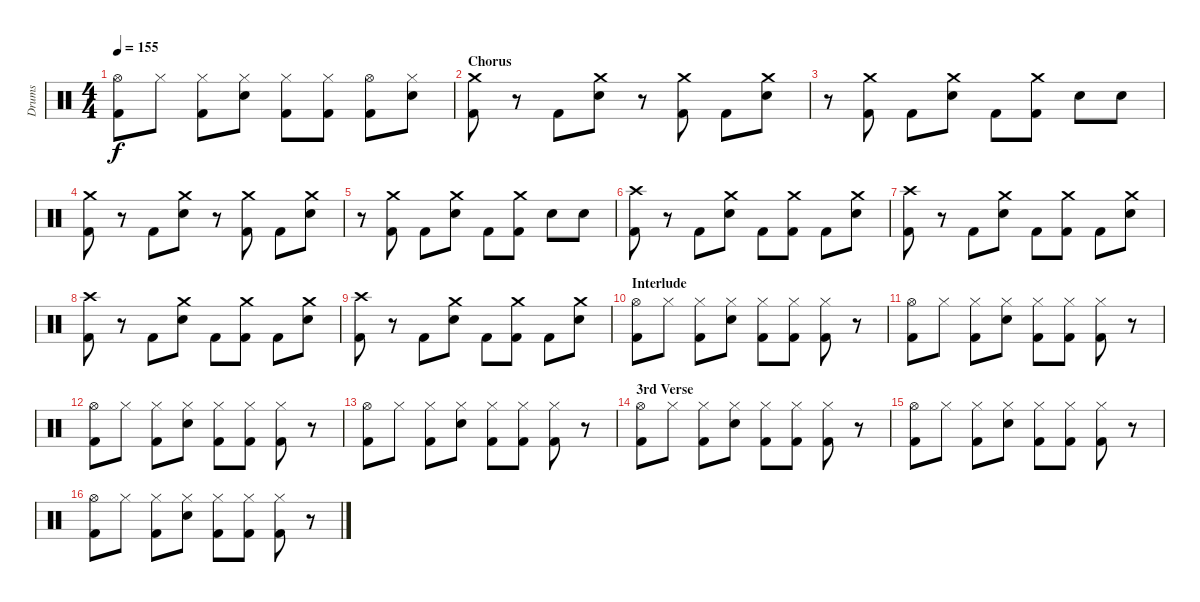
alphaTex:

\track ("Drums" "Drums") {instrument percussion}
\staff {score}
\articulation defaults
\ts (4 4)
\tempo 155
\clef neutral
\ks c
("Kick (hit) 2" "Hi-Hat (open)").8{dy f} "Hi-Hat (closed)".8 ("Kick (hit) 2" "Hi-Hat (closed)").8 ("Electric Snare (hit)" "Hi-Hat (closed)").8 ("Kick (hit) 2" "Hi-Hat (closed)").8 ("Kick (hit) 2" "Hi-Hat (closed)").8 ("Kick (hit) 2" "Hi-Hat (open)").8 ("Electric Snare (hit)" "Hi-Hat (closed)").8 |
\section ("" "Chorus")
("Kick (hit) 2" "Crash medium (hit)").8 r.8 "Kick (hit) 2".8 ("Electric Snare (hit)" "Crash medium (hit)").8 r.8 ("Kick (hit) 2" "Crash medium (hit)").8 "Kick (hit) 2".8 ("Electric Snare (hit)" "Crash medium (hit)").8 |
r.8 ("Kick (hit) 2" "Crash medium (hit)").8 "Kick (hit) 2".8 ("Electric Snare (hit)" "Crash medium (hit)").8 "Kick (hit) 2".8 ("Kick (hit) 2" "Crash medium (hit)").8 "Electric Snare (hit)".8 "Electric Snare (hit)".8 |
("Kick (hit) 2" "Crash medium (hit)").8 r.8 "Kick (hit) 2".8 ("Electric Snare (hit)" "Crash medium (hit)").8 r.8 ("Kick (hit) 2" "Crash medium (hit)").8 "Kick (hit) 2".8 ("Electric Snare (hit)" "Crash medium (hit)").8 |
r.8 ("Kick (hit) 2" "Crash medium (hit)").8 "Kick (hit) 2".8 ("Electric Snare (hit)" "Crash medium (hit)").8 "Kick (hit) 2".8 ("Kick (hit) 2" "Crash medium (hit)").8 "Electric Snare (hit)".8 "Electric Snare (hit)".8 |
("Kick (hit) 2" "Crash high (hit)").8 r.8 "Kick (hit) 2".8 ("Electric Snare (hit)" "Crash medium (hit)").8 "Kick (hit) 2".8 ("Kick (hit) 2" "Crash medium (hit)").8 "Kick (hit) 2".8 ("Electric Snare (hit)" "Crash medium (hit)").8 |
("Kick (hit) 2" "Crash high (hit)").8 r.8 "Kick (hit) 2".8 ("Electric Snare (hit)" "Crash medium (hit)").8 "Kick (hit) 2".8 ("Kick (hit) 2" "Crash medium (hit)").8 "Kick (hit) 2".8 ("Electric Snare (hit)" "Crash medium (hit)").8 |
("Kick (hit) 2" "Crash high (hit)").8 r.8 "Kick (hit) 2".8 ("Electric Snare (hit)" "Crash medium (hit)").8 "Kick (hit) 2".8 ("Kick (hit) 2" "Crash medium (hit)").8 "Kick (hit) 2".8 ("Electric Snare (hit)" "Crash medium (hit)").8 |
("Kick (hit) 2" "Crash high (hit)").8 r.8 "Kick (hit) 2".8 ("Electric Snare (hit)" "Crash medium (hit)").8 "Kick (hit) 2".8 ("Kick (hit) 2" "Crash medium (hit)").8 "Kick (hit) 2".8 ("Electric Snare (hit)" "Crash medium (hit)").8 |
\section ("" "Interlude")
("Kick (hit) 2" "Hi-Hat (open)").8 "Hi-Hat (closed)".8 ("Kick (hit) 2" "Hi-Hat (closed)").8 ("Electric Snare (hit)" "Hi-Hat (closed)").8 ("Kick (hit) 2" "Hi-Hat (closed)").8 ("Kick (hit) 2" "Hi-Hat (closed)").8 ("Kick (hit) 2" "Hi-Hat (closed)").8 r.8 |
("Kick (hit) 2" "Hi-Hat (open)").8 "Hi-Hat (closed)".8 ("Kick (hit) 2" "Hi-Hat (closed)").8 ("Electric Snare (hit)" "Hi-Hat (closed)").8 ("Kick (hit) 2" "Hi-Hat (closed)").8 ("Kick (hit) 2" "Hi-Hat (closed)").8 ("Kick (hit) 2" "Hi-Hat (closed)").8 r.8 |
("Kick (hit) 2" "Hi-Hat (open)").8 "Hi-Hat (closed)".8 ("Kick (hit) 2" "Hi-Hat (closed)").8 ("Electric Snare (hit)" "Hi-Hat (closed)").8 ("Kick (hit) 2" "Hi-Hat (closed)").8 ("Kick (hit) 2" "Hi-Hat (closed)").8 ("Kick (hit) 2" "Hi-Hat (closed)").8 r.8 |
("Kick (hit) 2" "Hi-Hat (open)").8 "Hi-Hat (closed)".8 ("Kick (hit) 2" "Hi-Hat (closed)").8 ("Electric Snare (hit)" "Hi-Hat (closed)").8 ("Kick (hit) 2" "Hi-Hat (closed)").8 ("Kick (hit) 2" "Hi-Hat (closed)").8 ("Kick (hit) 2" "Hi-Hat (closed)").8 r.8 |
\section ("" "3rd Verse")
("Kick (hit) 2" "Hi-Hat (open)").8 "Hi-Hat (closed)".8 ("Kick (hit) 2" "Hi-Hat (closed)").8 ("Electric Snare (hit)" "Hi-Hat (closed)").8 ("Kick (hit) 2" "Hi-Hat (closed)").8 ("Kick (hit) 2" "Hi-Hat (closed)").8 ("Kick (hit) 2" "Hi-Hat (closed)").8 r.8 |
("Kick (hit) 2" "Hi-Hat (open)").8 "Hi-Hat (closed)".8 ("Kick (hit) 2" "Hi-Hat (closed)").8 ("Electric Snare (hit)" "Hi-Hat (closed)").8 ("Kick (hit) 2" "Hi-Hat (closed)").8 ("Kick (hit) 2" "Hi-Hat (closed)").8 ("Kick (hit) 2" "Hi-Hat (closed)").8 r.8 |
("Kick (hit) 2" "Hi-Hat (open)").8 "Hi-Hat (closed)".8 ("Kick (hit) 2" "Hi-Hat (closed)").8 ("Electric Snare (hit)" "Hi-Hat (closed)").8 ("Kick (hit) 2" "Hi-Hat (closed)").8 ("Kick (hit) 2" "Hi-Hat (closed)").8 ("Kick (hit) 2" "Hi-Hat (closed)").8 r.8
